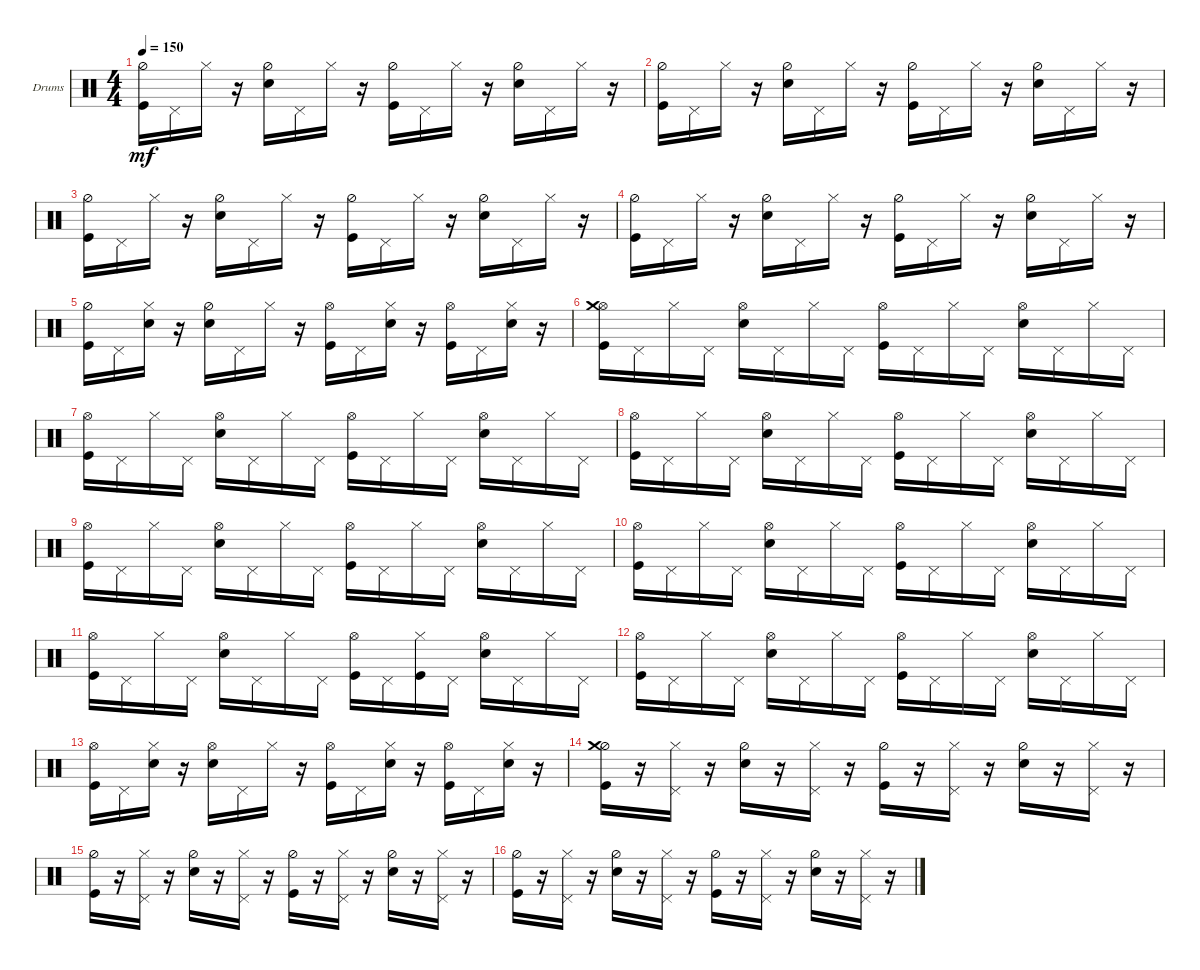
\bracketExtendMode groupsimilarinstruments
\firstSystemTrackNameOrientation horizontal
\otherSystemsTrackNameOrientation horizontal
\track ("Drumkit" "Drums") {solo instrument percussion}
\staff {score}
\articulation defaults
\ts (4 4)
\tempo 150
\clef neutral
\ks c
("Kick (hit)" "Hi-Hat (half)").16{dy mf} "Pedal Hi-Hat (hit)".16 "Hi-Hat (closed)".16 r.16 ("Snare (hit) 2" "Hi-Hat (half)").16 "Pedal Hi-Hat (hit)".16 "Hi-Hat (closed)".16 r.16 ("Kick (hit)" "Hi-Hat (half)").16 "Pedal Hi-Hat (hit)".16 "Hi-Hat (closed)".16 r.16 ("Snare (hit) 2" "Hi-Hat (half)").16 "Pedal Hi-Hat (hit)".16 "Hi-Hat (closed)".16 r.16 |
("Kick (hit)" "Hi-Hat (half)").16 "Pedal Hi-Hat (hit)".16 "Hi-Hat (closed)".16 r.16 ("Snare (hit) 2" "Hi-Hat (half)").16 "Pedal Hi-Hat (hit)".16 "Hi-Hat (closed)".16 r.16 ("Kick (hit)" "Hi-Hat (half)").16 "Pedal Hi-Hat (hit)".16 "Hi-Hat (closed)".16 r.16 ("Snare (hit) 2" "Hi-Hat (half)").16 "Pedal Hi-Hat (hit)".16 "Hi-Hat (closed)".16 r.16 |
("Kick (hit)" "Hi-Hat (half)").16 "Pedal Hi-Hat (hit)".16 "Hi-Hat (closed)".16 r.16 ("Snare (hit) 2" "Hi-Hat (half)").16 "Pedal Hi-Hat (hit)".16 "Hi-Hat (closed)".16 r.16 ("Kick (hit)" "Hi-Hat (half)").16 "Pedal Hi-Hat (hit)".16 "Hi-Hat (closed)".16 r.16 ("Snare (hit) 2" "Hi-Hat (half)").16 "Pedal Hi-Hat (hit)".16 "Hi-Hat (closed)".16 r.16 |
("Kick (hit)" "Hi-Hat (half)").16 "Pedal Hi-Hat (hit)".16 "Hi-Hat (closed)".16 r.16 ("Snare (hit) 2" "Hi-Hat (half)").16 "Pedal Hi-Hat (hit)".16 "Hi-Hat (closed)".16 r.16 ("Kick (hit)" "Hi-Hat (half)").16 "Pedal Hi-Hat (hit)".16 "Hi-Hat (closed)".16 r.16 ("Snare (hit) 2" "Hi-Hat (half)").16 "Pedal Hi-Hat (hit)".16 "Hi-Hat (closed)".16 r.16 |
("Kick (hit)" "Hi-Hat (half)").16 "Pedal Hi-Hat (hit)".16 ("Hi-Hat (closed)" "Snare (hit) 2").16 r.16 ("Snare (hit) 2" "Hi-Hat (half)").16 "Pedal Hi-Hat (hit)".16 "Hi-Hat (closed)".16 r.16 ("Kick (hit)" "Hi-Hat (open)").16 "Pedal Hi-Hat (hit)".16 ("Hi-Hat (closed)" "Snare (hit) 2").16 r.16 ("Hi-Hat (open)" "Kick (hit)").16 "Pedal Hi-Hat (hit)".16 ("Hi-Hat (closed)" "Snare (hit) 2").16 r.16 |
("Kick (hit)" "Hi-Hat (open)" "Crash medium (hit)").16 "Pedal Hi-Hat (hit)".16 "Hi-Hat (closed)".16 "Pedal Hi-Hat (hit)".16 ("Snare (hit) 2" "Hi-Hat (open)").16 "Pedal Hi-Hat (hit)".16 "Hi-Hat (closed)".16 "Pedal Hi-Hat (hit)".16 ("Kick (hit)" "Hi-Hat (open)").16 "Pedal Hi-Hat (hit)".16 "Hi-Hat (closed)".16 "Pedal Hi-Hat (hit)".16 ("Snare (hit) 2" "Hi-Hat (open)").16 "Pedal Hi-Hat (hit)".16 "Hi-Hat (closed)".16 "Pedal Hi-Hat (hit)".16 |
("Kick (hit)" "Hi-Hat (open)").16 "Pedal Hi-Hat (hit)".16 "Hi-Hat (closed)".16 "Pedal Hi-Hat (hit)".16 ("Snare (hit) 2" "Hi-Hat (open)").16 "Pedal Hi-Hat (hit)".16 "Hi-Hat (closed)".16 "Pedal Hi-Hat (hit)".16 ("Kick (hit)" "Hi-Hat (open)").16 "Pedal Hi-Hat (hit)".16 "Hi-Hat (closed)".16 "Pedal Hi-Hat (hit)".16 ("Snare (hit) 2" "Hi-Hat (open)").16 "Pedal Hi-Hat (hit)".16 "Hi-Hat (closed)".16 "Pedal Hi-Hat (hit)".16 |
("Kick (hit)" "Hi-Hat (open)").16 "Pedal Hi-Hat (hit)".16 "Hi-Hat (closed)".16 "Pedal Hi-Hat (hit)".16 ("Snare (hit) 2" "Hi-Hat (open)").16 "Pedal Hi-Hat (hit)".16 "Hi-Hat (closed)".16 "Pedal Hi-Hat (hit)".16 ("Kick (hit)" "Hi-Hat (open)").16 "Pedal Hi-Hat (hit)".16 "Hi-Hat (closed)".16 "Pedal Hi-Hat (hit)".16 ("Snare (hit) 2" "Hi-Hat (open)").16 "Pedal Hi-Hat (hit)".16 "Hi-Hat (closed)".16 "Pedal Hi-Hat (hit)".16 |
("Kick (hit)" "Hi-Hat (open)").16 "Pedal Hi-Hat (hit)".16 "Hi-Hat (closed)".16 "Pedal Hi-Hat (hit)".16 ("Snare (hit) 2" "Hi-Hat (open)").16 "Pedal Hi-Hat (hit)".16 "Hi-Hat (closed)".16 "Pedal Hi-Hat (hit)".16 ("Kick (hit)" "Hi-Hat (open)").16 "Pedal Hi-Hat (hit)".16 "Hi-Hat (closed)".16 "Pedal Hi-Hat (hit)".16 ("Snare (hit) 2" "Hi-Hat (open)").16 "Pedal Hi-Hat (hit)".16 "Hi-Hat (closed)".16 "Pedal Hi-Hat (hit)".16 |
("Kick (hit)" "Hi-Hat (open)").16 "Pedal Hi-Hat (hit)".16 "Hi-Hat (closed)".16 "Pedal Hi-Hat (hit)".16 ("Snare (hit) 2" "Hi-Hat (open)").16 "Pedal Hi-Hat (hit)".16 "Hi-Hat (closed)".16 "Pedal Hi-Hat (hit)".16 ("Kick (hit)" "Hi-Hat (open)").16 "Pedal Hi-Hat (hit)".16 "Hi-Hat (closed)".16 "Pedal Hi-Hat (hit)".16 ("Snare (hit) 2" "Hi-Hat (open)").16 "Pedal Hi-Hat (hit)".16 "Hi-Hat (closed)".16 "Pedal Hi-Hat (hit)".16 |
("Kick (hit)" "Hi-Hat (open)").16 "Pedal Hi-Hat (hit)".16 "Hi-Hat (closed)".16 "Pedal Hi-Hat (hit)".16 ("Snare (hit) 2" "Hi-Hat (open)").16 "Pedal Hi-Hat (hit)".16 "Hi-Hat (closed)".16 "Pedal Hi-Hat (hit)".16 ("Kick (hit)" "Hi-Hat (open)").16 "Pedal Hi-Hat (hit)".16 ("Hi-Hat (closed)" "Kick (hit)").16 "Pedal Hi-Hat (hit)".16 ("Snare (hit) 2" "Hi-Hat (open)").16 "Pedal Hi-Hat (hit)".16 "Hi-Hat (closed)".16 "Pedal Hi-Hat (hit)".16 |
("Kick (hit)" "Hi-Hat (open)").16 "Pedal Hi-Hat (hit)".16 "Hi-Hat (closed)".16 "Pedal Hi-Hat (hit)".16 ("Snare (hit) 2" "Hi-Hat (open)").16 "Pedal Hi-Hat (hit)".16 "Hi-Hat (closed)".16 "Pedal Hi-Hat (hit)".16 ("Kick (hit)" "Hi-Hat (open)").16 "Pedal Hi-Hat (hit)".16 "Hi-Hat (closed)".16 "Pedal Hi-Hat (hit)".16 ("Snare (hit) 2" "Hi-Hat (open)").16 "Pedal Hi-Hat (hit)".16 "Hi-Hat (closed)".16 "Pedal Hi-Hat (hit)".16 |
("Kick (hit)" "Hi-Hat (open)").16 "Pedal Hi-Hat (hit)".16 ("Hi-Hat (closed)" "Snare (hit) 2").16 r.16 ("Snare (hit) 2" "Hi-Hat (open)").16 "Pedal Hi-Hat (hit)".16 "Hi-Hat (closed)".16 r.16 ("Kick (hit)" "Hi-Hat (open)").16 "Pedal Hi-Hat (hit)".16 ("Hi-Hat (closed)" "Snare (hit) 2").16 r.16 ("Hi-Hat (open)" "Kick (hit)").16 "Pedal Hi-Hat (hit)".16 ("Hi-Hat (closed)" "Snare (hit) 2").16 r.16 |
("Kick (hit)" "Hi-Hat (half)" "Crash medium (hit)").16 r.16 ("Pedal Hi-Hat (hit)" "Hi-Hat (closed)").16 r.16 ("Snare (hit) 2" "Hi-Hat (half)").16 r.16 ("Pedal Hi-Hat (hit)" "Hi-Hat (closed)").16 r.16 ("Kick (hit)" "Hi-Hat (half)").16 r.16 ("Hi-Hat (closed)" "Pedal Hi-Hat (hit)").16 r.16 ("Snare (hit) 2" "Hi-Hat (half)").16 r.16 ("Hi-Hat (closed)" "Pedal Hi-Hat (hit)").16 r.16 |
("Kick (hit)" "Hi-Hat (half)").16 r.16 ("Hi-Hat (closed)" "Pedal Hi-Hat (hit)").16 r.16 ("Snare (hit) 2" "Hi-Hat (half)").16 r.16 ("Hi-Hat (closed)" "Pedal Hi-Hat (hit)").16 r.16 ("Kick (hit)" "Hi-Hat (half)").16 r.16 ("Hi-Hat (closed)" "Pedal Hi-Hat (hit)").16 r.16 ("Snare (hit) 2" "Hi-Hat (half)").16 r.16 ("Hi-Hat (closed)" "Pedal Hi-Hat (hit)").16 r.16 |
("Kick (hit)" "Hi-Hat (half)").16 r.16 ("Hi-Hat (closed)" "Pedal Hi-Hat (hit)").16 r.16 ("Snare (hit) 2" "Hi-Hat (half)").16 r.16 ("Hi-Hat (closed)" "Pedal Hi-Hat (hit)").16 r.16 ("Kick (hit)" "Hi-Hat (half)").16 r.16 ("Hi-Hat (closed)" "Pedal Hi-Hat (hit)").16 r.16 ("Snare (hit) 2" "Hi-Hat (half)").16 r.16 ("Hi-Hat (closed)" "Pedal Hi-Hat (hit)").16 r.16
